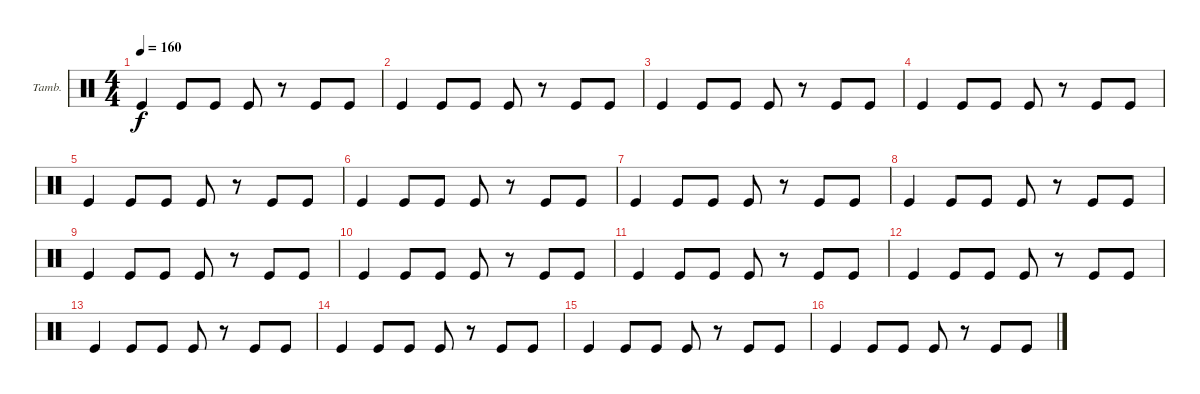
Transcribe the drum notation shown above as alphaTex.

\bracketExtendMode groupsimilarinstruments
\firstSystemTrackNameOrientation horizontal
\otherSystemsTrackNameOrientation horizontal
\track ("Tambourine" "Tamb.") {instrument percussion}
\staff {score}
\articulation defaults
\ts (4 4)
\tempo 160
\clef neutral
\ks c "Kick (hit)".4{dy f} "Kick (hit)".8 "Kick (hit)".8 "Kick (hit)".8
r.8 "Kick (hit)".8 "Kick (hit)".8 |
"Kick (hit)".4 "Kick (hit)".8 "Kick (hit)".8 "Kick (hit)".8 r.8 "Kick (hit)".8 "Kick (hit)".8 |
"Kick (hit)".4 "Kick (hit)".8 "Kick (hit)".8 "Kick (hit)".8 r.8 "Kick (hit)".8 "Kick (hit)".8 |
"Kick (hit)".4 "Kick (hit)".8 "Kick (hit)".8 "Kick (hit)".8 r.8 "Kick (hit)".8 "Kick (hit)".8 |
"Kick (hit)".4 "Kick (hit)".8 "Kick (hit)".8 "Kick (hit)".8 r.8 "Kick (hit)".8 "Kick (hit)".8 |
"Kick (hit)".4 "Kick (hit)".8 "Kick (hit)".8 "Kick (hit)".8 r.8 "Kick (hit)".8 "Kick (hit)".8 |
"Kick (hit)".4 "Kick (hit)".8 "Kick (hit)".8 "Kick (hit)".8 r.8 "Kick (hit)".8 "Kick (hit)".8 |
"Kick (hit)".4 "Kick (hit)".8 "Kick (hit)".8 "Kick (hit)".8 r.8 "Kick (hit)".8 "Kick (hit)".8 |
"Kick (hit)".4 "Kick (hit)".8 "Kick (hit)".8 "Kick (hit)".8 r.8 "Kick (hit)".8 "Kick (hit)".8 |
"Kick (hit)".4 "Kick (hit)".8 "Kick (hit)".8 "Kick (hit)".8 r.8 "Kick (hit)".8 "Kick (hit)".8 |
"Kick (hit)".4 "Kick (hit)".8 "Kick (hit)".8 "Kick (hit)".8 r.8 "Kick (hit)".8 "Kick (hit)".8 |
"Kick (hit)".4 "Kick (hit)".8 "Kick (hit)".8 "Kick (hit)".8 r.8 "Kick (hit)".8 "Kick (hit)".8 |
"Kick (hit)".4 "Kick (hit)".8 "Kick (hit)".8 "Kick (hit)".8 r.8 "Kick (hit)".8 "Kick (hit)".8 |
"Kick (hit)".4 "Kick (hit)".8 "Kick (hit)".8 "Kick (hit)".8 r.8 "Kick (hit)".8 "Kick (hit)".8 |
"Kick (hit)".4 "Kick (hit)".8 "Kick (hit)".8 "Kick (hit)".8 r.8 "Kick (hit)".8 "Kick (hit)".8 |
"Kick (hit)".4 "Kick (hit)".8 "Kick (hit)".8 "Kick (hit)".8 r.8 "Kick (hit)".8 "Kick (hit)".8
